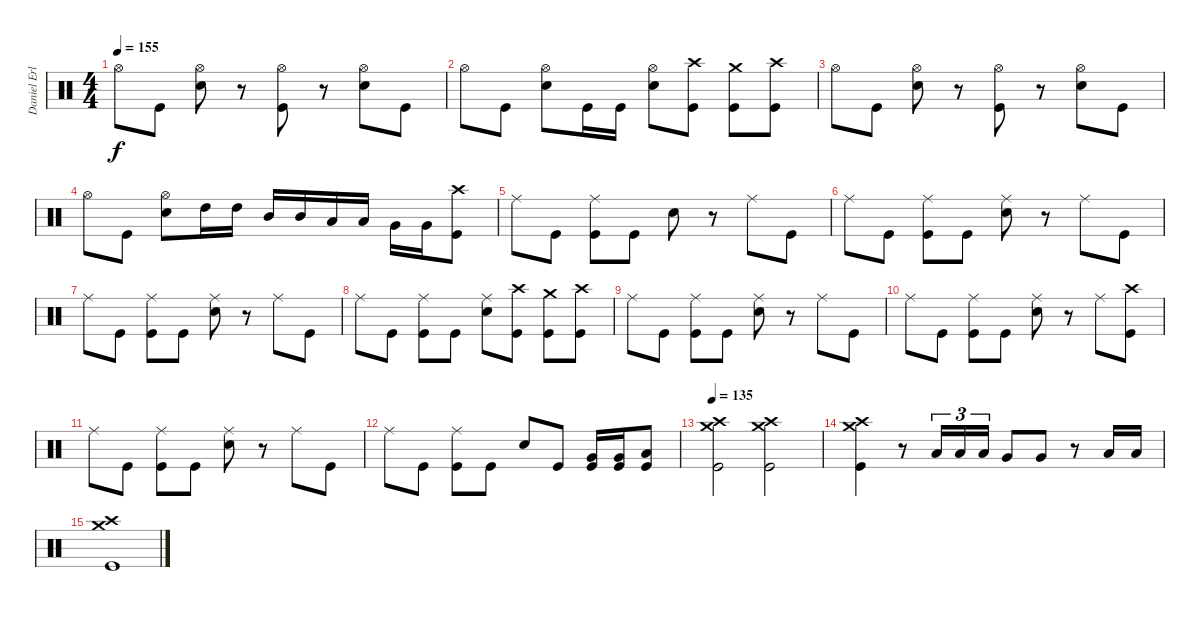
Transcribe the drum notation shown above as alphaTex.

\track ("Daniel Erlandsson" "Daniel Erl") {instrument percussion}
\staff {score}
\articulation defaults
\ts (4 4)
\tempo 155
\clef neutral
\ks c "Hi-Hat (open)".8{dy f} "Kick (hit)".8
("Hi-Hat (open)" "Snare (hit) 2").8 r.8 ("Hi-Hat (open)" "Kick (hit)").8 r.8 ("Hi-Hat (open)" "Snare (hit) 2").8 "Kick (hit)".8 |
"Hi-Hat (open)".8 "Kick (hit)".8 ("Hi-Hat (open)" "Snare (hit) 2").8 "Kick (hit)".16 "Kick (hit)".16 ("Hi-Hat (open)" "Snare (hit) 2").8 ("Crash high (hit)" "Kick (hit)").8 ("Crash medium (hit)" "Kick (hit)").8 ("Crash high (hit)" "Kick (hit)").8 |
"Hi-Hat (open)".8 "Kick (hit)".8 ("Hi-Hat (open)" "Snare (hit) 2").8 r.8 ("Hi-Hat (open)" "Kick (hit)").8 r.8 ("Hi-Hat (open)" "Snare (hit) 2").8 "Kick (hit)".8 |
"Hi-Hat (open)".8 "Kick (hit)".8 ("Hi-Hat (open)" "Snare (hit) 2").8 "High Tom (hit)".16 "High Tom (hit)".16 "Mid Tom (hit)".16 "Mid Tom (hit)".16 "Low Tom (hit)".16 "Low Tom (hit)".16 "Very Low Tom (hit)".16 "Very Low Tom (hit)".16 ("Crash high (hit)" "Kick (hit)").8 |
"Ride (middle)".8 "Kick (hit)".8 ("Ride (middle)" "Kick (hit)").8 "Kick (hit)".8 "Snare (hit) 2".8 r.8 "Ride (middle)".8 "Kick (hit)".8 |
"Ride (middle)".8 "Kick (hit)".8 ("Ride (middle)" "Kick (hit)").8 "Kick (hit)".8 ("Ride (middle)" "Snare (hit) 2").8 r.8 "Ride (middle)".8 "Kick (hit)".8 |
"Ride (middle)".8 "Kick (hit)".8 ("Ride (middle)" "Kick (hit)").8 "Kick (hit)".8 ("Ride (middle)" "Snare (hit) 2").8 r.8 "Ride (middle)".8 "Kick (hit)".8 |
"Ride (middle)".8 "Kick (hit)".8 ("Ride (middle)" "Kick (hit)").8 "Kick (hit)".8 ("Ride (middle)" "Snare (hit) 2").8 ("Crash high (hit)" "Kick (hit)").8 ("Crash medium (hit)" "Kick (hit)").8 ("Crash high (hit)" "Kick (hit)").8 |
"Ride (middle)".8 "Kick (hit)".8 ("Ride (middle)" "Kick (hit)").8 "Kick (hit)".8 ("Ride (middle)" "Snare (hit) 2").8 r.8 "Ride (middle)".8 "Kick (hit)".8 |
"Ride (middle)".8 "Kick (hit)".8 ("Ride (middle)" "Kick (hit)").8 "Kick (hit)".8 ("Ride (middle)" "Snare (hit) 2").8 r.8 "Ride (middle)".8 ("Crash high (hit)" "Kick (hit)").8 |
"Ride (middle)".8 "Kick (hit)".8 ("Ride (middle)" "Kick (hit)").8 "Kick (hit)".8 ("Ride (middle)" "Snare (hit) 2").8 r.8 "Ride (middle)".8 "Kick (hit)".8 |
"Ride (middle)".8 "Kick (hit)".8 ("Ride (middle)" "Kick (hit)").8 "Kick (hit)".8 "Snare (hit) 2".8 "Kick (hit)".8 ("Very Low Tom (hit)" "Kick (hit)").16 ("Very Low Tom (hit)" "Kick (hit)").16 ("Low Floor Tom (hit)" "Kick (hit)").8 |
\tempo 135
("Crash high (hit)" "Crash medium (hit)" "Kick (hit)").2 ("Crash high (hit)" "Crash medium (hit)" "Kick (hit)").2 |
("Crash high (hit)" "Crash medium (hit)" "Kick (hit)").4 r.8 "Low Tom (hit)".16{tu (3 2)} "Low Tom (hit)".16{tu (3 2)} "Low Tom (hit)".16{tu (3 2)} "Very Low Tom (hit)".8 "Very Low Tom (hit)".8 r.8 "Low Floor Tom (hit)".16 "Low Floor Tom (hit)".16 |
("Crash high (hit)" "Crash medium (hit)" "Kick (hit)").1
